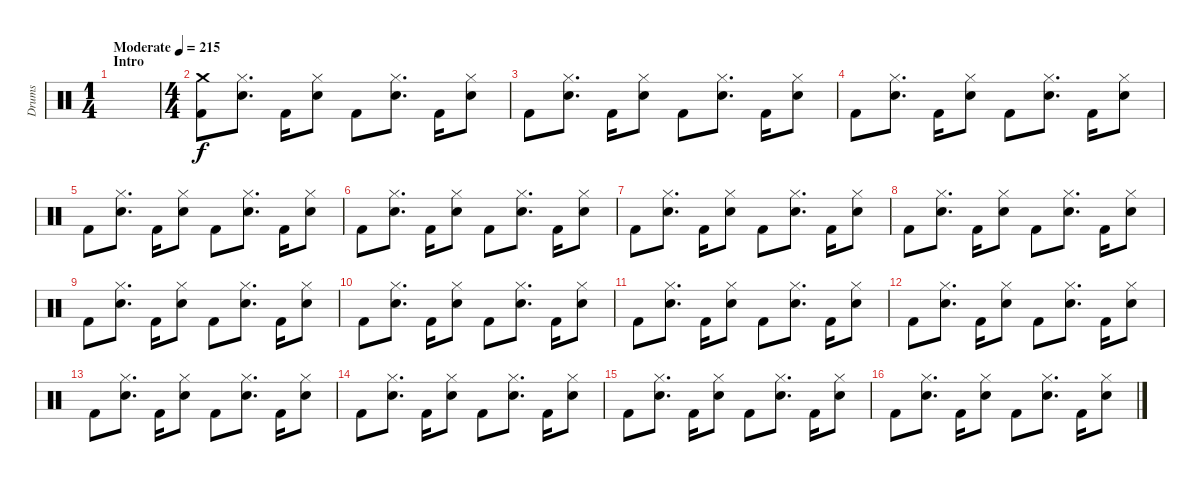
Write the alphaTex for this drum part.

\track ("Drums" "Drums") {instrument percussion}
\staff {score}
\articulation defaults
\ts (1 4)
\section ("" "Intro")
\tempo (215 "Moderate")
\clef neutral
\ks c
|
\ts (4 4)
("Crash medium (hit)" "Kick (hit) 2").8 ("Hi-Hat (closed)" "Electric Snare (hit)").8{d} "Kick (hit) 2".16 ("Hi-Hat (closed)" "Electric Snare (hit)").8 "Kick (hit) 2".8 ("Hi-Hat (closed)" "Electric Snare (hit)").8{d} "Kick (hit) 2".16 ("Hi-Hat (closed)" "Electric Snare (hit)").8 |
"Kick (hit) 2".8 ("Hi-Hat (closed)" "Electric Snare (hit)").8{d} "Kick (hit) 2".16 ("Hi-Hat (closed)" "Electric Snare (hit)").8 "Kick (hit) 2".8 ("Hi-Hat (closed)" "Electric Snare (hit)").8{d} "Kick (hit) 2".16 ("Hi-Hat (closed)" "Electric Snare (hit)").8 |
"Kick (hit) 2".8 ("Hi-Hat (closed)" "Electric Snare (hit)").8{d} "Kick (hit) 2".16 ("Hi-Hat (closed)" "Electric Snare (hit)").8 "Kick (hit) 2".8 ("Hi-Hat (closed)" "Electric Snare (hit)").8{d} "Kick (hit) 2".16 ("Hi-Hat (closed)" "Electric Snare (hit)").8 |
"Kick (hit) 2".8 ("Hi-Hat (closed)" "Electric Snare (hit)").8{d} "Kick (hit) 2".16 ("Hi-Hat (closed)" "Electric Snare (hit)").8 "Kick (hit) 2".8 ("Hi-Hat (closed)" "Electric Snare (hit)").8{d} "Kick (hit) 2".16 ("Hi-Hat (closed)" "Electric Snare (hit)").8 |
"Kick (hit) 2".8 ("Hi-Hat (closed)" "Electric Snare (hit)").8{d} "Kick (hit) 2".16 ("Hi-Hat (closed)" "Electric Snare (hit)").8 "Kick (hit) 2".8 ("Hi-Hat (closed)" "Electric Snare (hit)").8{d} "Kick (hit) 2".16 ("Hi-Hat (closed)" "Electric Snare (hit)").8 |
"Kick (hit) 2".8 ("Hi-Hat (closed)" "Electric Snare (hit)").8{d} "Kick (hit) 2".16 ("Hi-Hat (closed)" "Electric Snare (hit)").8 "Kick (hit) 2".8 ("Hi-Hat (closed)" "Electric Snare (hit)").8{d} "Kick (hit) 2".16 ("Hi-Hat (closed)" "Electric Snare (hit)").8 |
"Kick (hit) 2".8 ("Hi-Hat (closed)" "Electric Snare (hit)").8{d} "Kick (hit) 2".16 ("Hi-Hat (closed)" "Electric Snare (hit)").8 "Kick (hit) 2".8 ("Hi-Hat (closed)" "Electric Snare (hit)").8{d} "Kick (hit) 2".16 ("Hi-Hat (closed)" "Electric Snare (hit)").8 |
"Kick (hit) 2".8 ("Hi-Hat (closed)" "Electric Snare (hit)").8{d} "Kick (hit) 2".16 ("Hi-Hat (closed)" "Electric Snare (hit)").8 "Kick (hit) 2".8 ("Hi-Hat (closed)" "Electric Snare (hit)").8{d} "Kick (hit) 2".16 ("Hi-Hat (closed)" "Electric Snare (hit)").8 |
"Kick (hit) 2".8 ("Hi-Hat (closed)" "Electric Snare (hit)").8{d} "Kick (hit) 2".16 ("Hi-Hat (closed)" "Electric Snare (hit)").8 "Kick (hit) 2".8 ("Hi-Hat (closed)" "Electric Snare (hit)").8{d} "Kick (hit) 2".16 ("Hi-Hat (closed)" "Electric Snare (hit)").8 |
"Kick (hit) 2".8 ("Hi-Hat (closed)" "Electric Snare (hit)").8{d} "Kick (hit) 2".16 ("Hi-Hat (closed)" "Electric Snare (hit)").8 "Kick (hit) 2".8 ("Hi-Hat (closed)" "Electric Snare (hit)").8{d} "Kick (hit) 2".16 ("Hi-Hat (closed)" "Electric Snare (hit)").8 |
"Kick (hit) 2".8 ("Hi-Hat (closed)" "Electric Snare (hit)").8{d} "Kick (hit) 2".16 ("Hi-Hat (closed)" "Electric Snare (hit)").8 "Kick (hit) 2".8 ("Hi-Hat (closed)" "Electric Snare (hit)").8{d} "Kick (hit) 2".16 ("Hi-Hat (closed)" "Electric Snare (hit)").8 |
"Kick (hit) 2".8 ("Hi-Hat (closed)" "Electric Snare (hit)").8{d} "Kick (hit) 2".16 ("Hi-Hat (closed)" "Electric Snare (hit)").8 "Kick (hit) 2".8 ("Hi-Hat (closed)" "Electric Snare (hit)").8{d} "Kick (hit) 2".16 ("Hi-Hat (closed)" "Electric Snare (hit)").8 |
"Kick (hit) 2".8 ("Hi-Hat (closed)" "Electric Snare (hit)").8{d} "Kick (hit) 2".16 ("Hi-Hat (closed)" "Electric Snare (hit)").8 "Kick (hit) 2".8 ("Hi-Hat (closed)" "Electric Snare (hit)").8{d} "Kick (hit) 2".16 ("Hi-Hat (closed)" "Electric Snare (hit)").8 |
"Kick (hit) 2".8 ("Hi-Hat (closed)" "Electric Snare (hit)").8{d} "Kick (hit) 2".16 ("Hi-Hat (closed)" "Electric Snare (hit)").8 "Kick (hit) 2".8 ("Hi-Hat (closed)" "Electric Snare (hit)").8{d} "Kick (hit) 2".16 ("Hi-Hat (closed)" "Electric Snare (hit)").8 |
"Kick (hit) 2".8 ("Hi-Hat (closed)" "Electric Snare (hit)").8{d} "Kick (hit) 2".16 ("Hi-Hat (closed)" "Electric Snare (hit)").8 "Kick (hit) 2".8 ("Hi-Hat (closed)" "Electric Snare (hit)").8{d} "Kick (hit) 2".16 ("Hi-Hat (closed)" "Electric Snare (hit)").8
